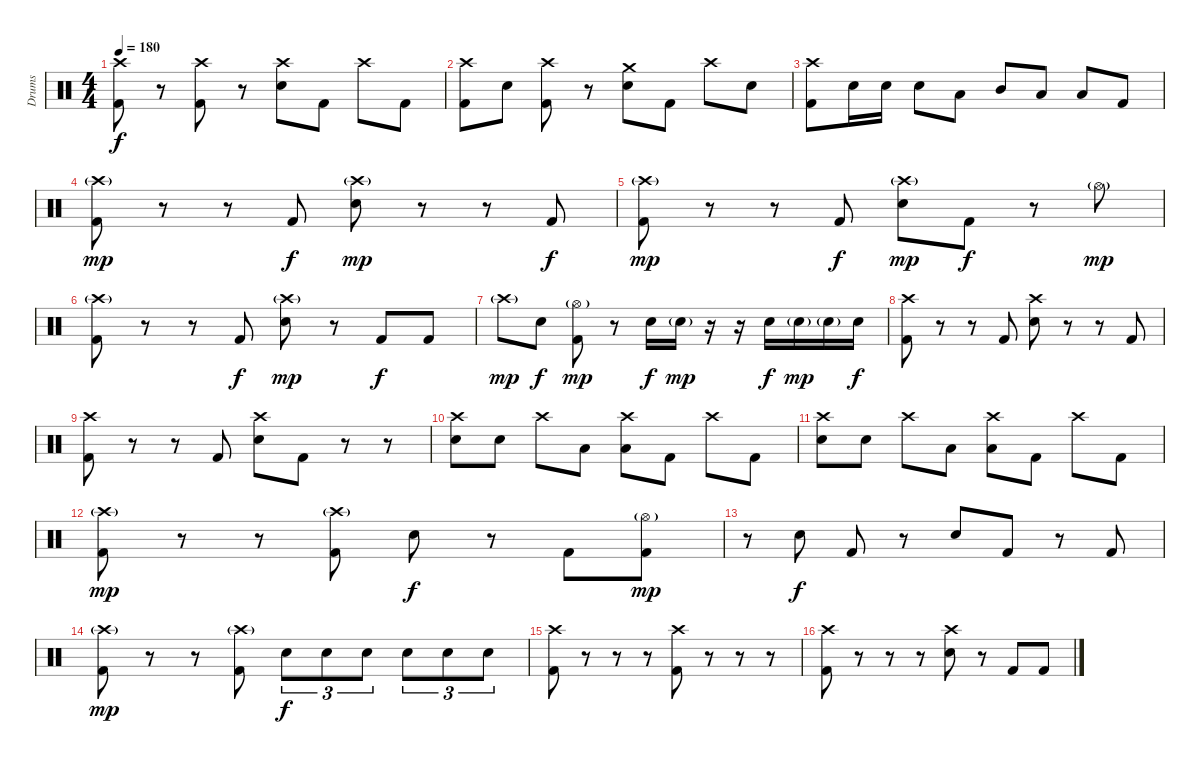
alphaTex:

\track ("Drums" "Drums") {instrument percussion}
\staff {score}
\articulation defaults
\ts (4 4)
\tempo 180
\clef neutral
\ks c
("Crash high (hit)" "Kick (hit) 2").8{dy f} r.8 ("Crash high (hit)" "Kick (hit) 2").8 r.8 ("Crash high (hit)" "Snare (hit) 2").8 "Kick (hit) 2".8 "Crash high (hit)".8 "Kick (hit) 2".8 |
("Crash high (hit)" "Kick (hit) 2").8 "Snare (hit) 2".8 ("Crash high (hit)" "Kick (hit) 2").8 r.8 ("Crash medium (hit)" "Snare (hit) 2").8 "Kick (hit) 2".8 "Crash high (hit)".8 "Snare (hit) 2".8 |
("Crash high (hit)" "Kick (hit) 2").8 "Snare (hit) 2".16 "Snare (hit) 2".16 "Snare (hit) 2".8 "Low Tom (hit)".8 "Mid Tom (hit)".8 "Low Tom (hit)".8 "Low Floor Tom (hit)".8 "Kick (hit) 2".8 |
("Crash high (hit)"{g} "Kick (hit) 2").8{dy mp} r.8 r.8 "Kick (hit) 2".8{dy f} ("Crash high (hit)"{g} "Snare (hit) 2").8{dy mp} r.8 r.8 "Kick (hit) 2".8{dy f} |
("Crash high (hit)"{g} "Kick (hit) 2").8{dy mp} r.8 r.8 "Kick (hit) 2".8{dy f} ("Crash high (hit)"{g} "Snare (hit) 2").8{dy mp} "Kick (hit) 2".8{dy f} r.8 "Hi-Hat (open)"{g}.8{dy mp} |
("Crash high (hit)"{g} "Kick (hit) 2").8 r.8 r.8 "Kick (hit) 2".8{dy f} ("Crash high (hit)"{g} "Snare (hit) 2").8{dy mp} r.8 "Kick (hit) 2".8{dy f} "Kick (hit) 2".8 |
"Crash high (hit)"{g}.8{dy mp} "Snare (hit) 2".8{dy f} ("Hi-Hat (open)"{g} "Kick (hit) 2").8{dy mp} r.8 "Snare (hit) 2".16{dy f} "Snare (hit) 2"{g}.16{dy mp} r.16 r.16 "Snare (hit) 2".16{dy f} "Snare (hit) 2"{g}.16{dy mp} "Snare (hit) 2"{g}.16 "Snare (hit) 2".16{dy f} |
("Crash high (hit)" "Kick (hit) 2").8 r.8 r.8 "Kick (hit) 2".8 ("Crash high (hit)" "Snare (hit) 2").8 r.8 r.8 "Kick (hit) 2".8 |
("Crash high (hit)" "Kick (hit) 2").8 r.8 r.8 "Kick (hit) 2".8 ("Crash high (hit)" "Snare (hit) 2").8 "Kick (hit) 2".8 r.8 r.8 |
("Crash high (hit)" "Snare (hit) 2").8 "Snare (hit) 2".8 "Crash high (hit)".8 "Low Tom (hit)".8 ("Crash high (hit)" "Low Floor Tom (hit)").8 "Kick (hit) 2".8 "Crash high (hit)".8 "Kick (hit) 2".8 |
("Crash high (hit)" "Snare (hit) 2").8 "Snare (hit) 2".8 "Crash high (hit)".8 "Low Tom (hit)".8 ("Crash high (hit)" "Low Floor Tom (hit)").8 "Kick (hit) 2".8 "Crash high (hit)".8 "Kick (hit) 2".8 |
("Crash high (hit)"{g} "Kick (hit) 2").8{dy mp} r.8 r.8 ("Crash high (hit)"{g} "Kick (hit) 2").8 "Snare (hit) 2".8{dy f} r.8 "Kick (hit) 2".8 ("Hi-Hat (open)"{g} "Kick (hit) 2").8{dy mp} |
r.8 "Snare (hit) 2".8{dy f} "Kick (hit) 2".8 r.8 "Snare (hit) 2".8 "Kick (hit) 2".8 r.8 "Kick (hit) 2".8 |
("Crash high (hit)"{g} "Kick (hit) 2").8{dy mp} r.8 r.8 ("Crash high (hit)"{g} "Kick (hit) 2").8 "Snare (hit) 2".8{tu (3 2) dy f} "Snare (hit) 2".8{tu (3 2)} "Snare (hit) 2".8{tu (3 2)} "Snare (hit) 2".8{tu (3 2)} "Snare (hit) 2".8{tu (3 2)} "Snare (hit) 2".8{tu (3 2)} |
("Crash high (hit)" "Kick (hit) 2").8 r.8 r.8 r.8 ("Crash high (hit)" "Kick (hit) 2").8 r.8 r.8 r.8 |
("Crash high (hit)" "Kick (hit) 2").8 r.8 r.8 r.8 ("Crash high (hit)" "Snare (hit) 2").8 r.8 "Kick (hit) 2".8 "Kick (hit) 2".8
